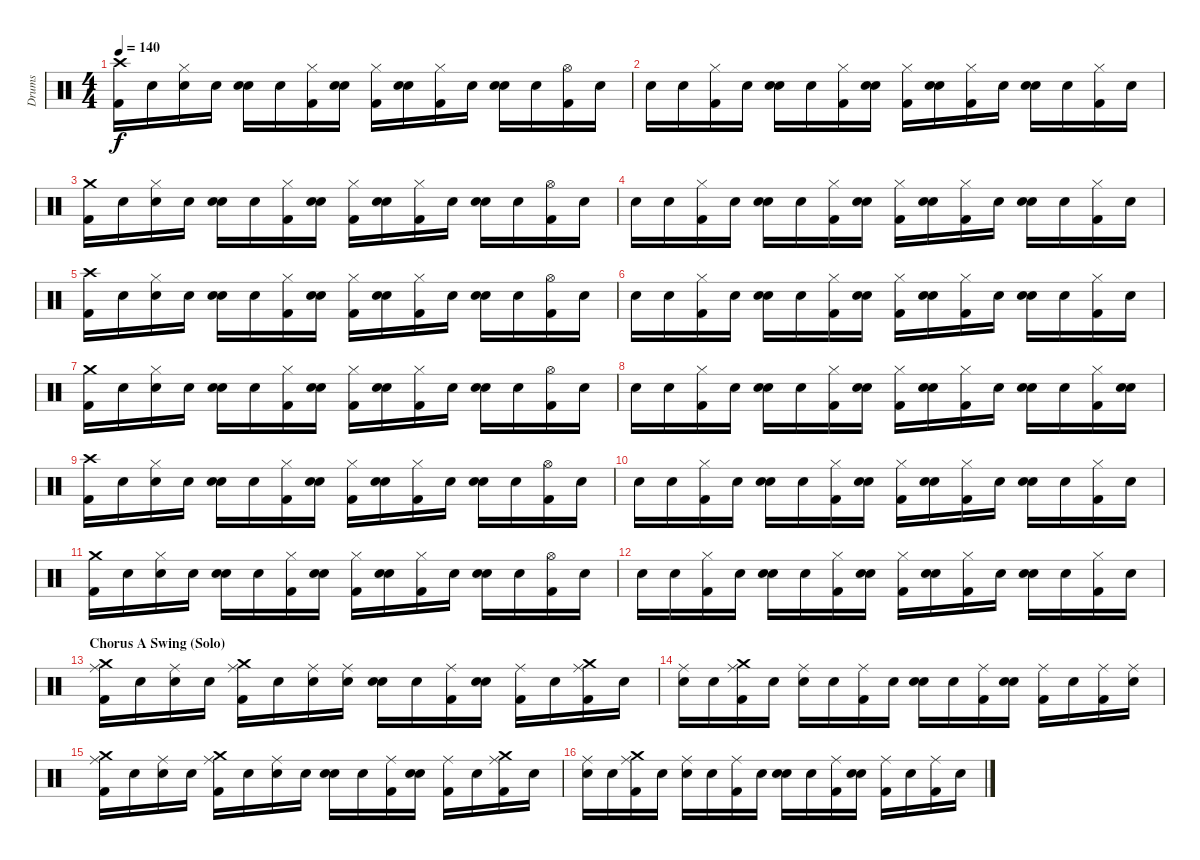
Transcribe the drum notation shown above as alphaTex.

\track ("Drums" "Drums") {instrument percussion}
\staff {score}
\articulation defaults
\ts (4 4)
\tempo 140
\clef neutral
\ks c
("Kick (hit) 2" "Crash high (hit)").16{dy f} "Snare (hit)".16 ("Snare (hit)" "Hi-Hat (closed)").16 "Snare (hit)".16 ("Snare (hit)" "Electric Snare (hit)").16 "Snare (hit)".16 ("Kick (hit) 2" "Hi-Hat (closed)").16 ("Snare (hit)" "Electric Snare (hit)").16 ("Kick (hit) 2" "Hi-Hat (closed)").16 ("Snare (hit)" "Electric Snare (hit)").16 ("Kick (hit) 2" "Hi-Hat (closed)").16 "Snare (hit)".16 ("Snare (hit)" "Electric Snare (hit)").16 "Snare (hit)".16 ("Kick (hit) 2" "Hi-Hat (open)").16 "Snare (hit)".16 |
"Snare (hit)".16 "Snare (hit)".16 ("Kick (hit) 2" "Hi-Hat (closed)").16 "Snare (hit)".16 ("Snare (hit)" "Electric Snare (hit)").16 "Snare (hit)".16 ("Kick (hit) 2" "Hi-Hat (closed)").16 ("Snare (hit)" "Electric Snare (hit)").16 ("Kick (hit) 2" "Hi-Hat (closed)").16 ("Snare (hit)" "Electric Snare (hit)").16 ("Kick (hit) 2" "Hi-Hat (closed)").16 "Snare (hit)".16 ("Snare (hit)" "Electric Snare (hit)").16 "Snare (hit)".16 ("Kick (hit) 2" "Hi-Hat (closed)").16 "Snare (hit)".16 |
("Kick (hit) 2" "Crash medium (hit)").16 "Snare (hit)".16 ("Snare (hit)" "Hi-Hat (closed)").16 "Snare (hit)".16 ("Snare (hit)" "Electric Snare (hit)").16 "Snare (hit)".16 ("Kick (hit) 2" "Hi-Hat (closed)").16 ("Snare (hit)" "Electric Snare (hit)").16 ("Kick (hit) 2" "Hi-Hat (closed)").16 ("Snare (hit)" "Electric Snare (hit)").16 ("Kick (hit) 2" "Hi-Hat (closed)").16 "Snare (hit)".16 ("Snare (hit)" "Electric Snare (hit)").16 "Snare (hit)".16 ("Kick (hit) 2" "Hi-Hat (open)").16 "Snare (hit)".16 |
"Snare (hit)".16 "Snare (hit)".16 ("Kick (hit) 2" "Hi-Hat (closed)").16 "Snare (hit)".16 ("Snare (hit)" "Electric Snare (hit)").16 "Snare (hit)".16 ("Kick (hit) 2" "Hi-Hat (closed)").16 ("Snare (hit)" "Electric Snare (hit)").16 ("Kick (hit) 2" "Hi-Hat (closed)").16 ("Snare (hit)" "Electric Snare (hit)").16 ("Kick (hit) 2" "Hi-Hat (closed)").16 "Snare (hit)".16 ("Snare (hit)" "Electric Snare (hit)").16 "Snare (hit)".16 ("Kick (hit) 2" "Hi-Hat (closed)").16 "Snare (hit)".16 |
("Kick (hit) 2" "Crash high (hit)").16 "Snare (hit)".16 ("Snare (hit)" "Hi-Hat (closed)").16 "Snare (hit)".16 ("Snare (hit)" "Electric Snare (hit)").16 "Snare (hit)".16 ("Kick (hit) 2" "Hi-Hat (closed)").16 ("Snare (hit)" "Electric Snare (hit)").16 ("Kick (hit) 2" "Hi-Hat (closed)").16 ("Snare (hit)" "Electric Snare (hit)").16 ("Kick (hit) 2" "Hi-Hat (closed)").16 "Snare (hit)".16 ("Snare (hit)" "Electric Snare (hit)").16 "Snare (hit)".16 ("Kick (hit) 2" "Hi-Hat (open)").16 "Snare (hit)".16 |
"Snare (hit)".16 "Snare (hit)".16 ("Kick (hit) 2" "Hi-Hat (closed)").16 "Snare (hit)".16 ("Snare (hit)" "Electric Snare (hit)").16 "Snare (hit)".16 ("Kick (hit) 2" "Hi-Hat (closed)").16 ("Snare (hit)" "Electric Snare (hit)").16 ("Kick (hit) 2" "Hi-Hat (closed)").16 ("Snare (hit)" "Electric Snare (hit)").16 ("Kick (hit) 2" "Hi-Hat (closed)").16 "Snare (hit)".16 ("Snare (hit)" "Electric Snare (hit)").16 "Snare (hit)".16 ("Kick (hit) 2" "Hi-Hat (closed)").16 "Snare (hit)".16 |
("Kick (hit) 2" "Crash medium (hit)").16 "Snare (hit)".16 ("Snare (hit)" "Hi-Hat (closed)").16 "Snare (hit)".16 ("Snare (hit)" "Electric Snare (hit)").16 "Snare (hit)".16 ("Kick (hit) 2" "Hi-Hat (closed)").16 ("Snare (hit)" "Electric Snare (hit)").16 ("Kick (hit) 2" "Hi-Hat (closed)").16 ("Snare (hit)" "Electric Snare (hit)").16 ("Kick (hit) 2" "Hi-Hat (closed)").16 "Snare (hit)".16 ("Snare (hit)" "Electric Snare (hit)").16 "Snare (hit)".16 ("Kick (hit) 2" "Hi-Hat (open)").16 "Snare (hit)".16 |
"Snare (hit)".16 "Snare (hit)".16 ("Kick (hit) 2" "Hi-Hat (closed)").16 "Snare (hit)".16 ("Snare (hit)" "Electric Snare (hit)").16 "Snare (hit)".16 ("Kick (hit) 2" "Hi-Hat (closed)").16 ("Snare (hit)" "Electric Snare (hit)").16 ("Kick (hit) 2" "Hi-Hat (closed)").16 ("Snare (hit)" "Electric Snare (hit)").16 ("Kick (hit) 2" "Hi-Hat (closed)").16 "Snare (hit)".16 ("Snare (hit)" "Electric Snare (hit)").16 "Snare (hit)".16 ("Kick (hit) 2" "Hi-Hat (closed)").16 ("Snare (hit)" "Electric Snare (hit)").16 |
("Kick (hit) 2" "Crash high (hit)").16 "Snare (hit)".16 ("Snare (hit)" "Hi-Hat (closed)").16 "Snare (hit)".16 ("Snare (hit)" "Electric Snare (hit)").16 "Snare (hit)".16 ("Kick (hit) 2" "Hi-Hat (closed)").16 ("Snare (hit)" "Electric Snare (hit)").16 ("Kick (hit) 2" "Hi-Hat (closed)").16 ("Snare (hit)" "Electric Snare (hit)").16 ("Kick (hit) 2" "Hi-Hat (closed)").16 "Snare (hit)".16 ("Snare (hit)" "Electric Snare (hit)").16 "Snare (hit)".16 ("Kick (hit) 2" "Hi-Hat (open)").16 "Snare (hit)".16 |
"Snare (hit)".16 "Snare (hit)".16 ("Kick (hit) 2" "Hi-Hat (closed)").16 "Snare (hit)".16 ("Snare (hit)" "Electric Snare (hit)").16 "Snare (hit)".16 ("Kick (hit) 2" "Hi-Hat (closed)").16 ("Snare (hit)" "Electric Snare (hit)").16 ("Kick (hit) 2" "Hi-Hat (closed)").16 ("Snare (hit)" "Electric Snare (hit)").16 ("Kick (hit) 2" "Hi-Hat (closed)").16 "Snare (hit)".16 ("Snare (hit)" "Electric Snare (hit)").16 "Snare (hit)".16 ("Kick (hit) 2" "Hi-Hat (closed)").16 "Snare (hit)".16 |
("Kick (hit) 2" "Crash medium (hit)").16 "Snare (hit)".16 ("Snare (hit)" "Hi-Hat (closed)").16 "Snare (hit)".16 ("Snare (hit)" "Electric Snare (hit)").16 "Snare (hit)".16 ("Kick (hit) 2" "Hi-Hat (closed)").16 ("Snare (hit)" "Electric Snare (hit)").16 ("Kick (hit) 2" "Hi-Hat (closed)").16 ("Snare (hit)" "Electric Snare (hit)").16 ("Kick (hit) 2" "Hi-Hat (closed)").16 "Snare (hit)".16 ("Snare (hit)" "Electric Snare (hit)").16 "Snare (hit)".16 ("Kick (hit) 2" "Hi-Hat (open)").16 "Snare (hit)".16 |
"Snare (hit)".16 "Snare (hit)".16 ("Kick (hit) 2" "Hi-Hat (closed)").16 "Snare (hit)".16 ("Snare (hit)" "Electric Snare (hit)").16 "Snare (hit)".16 ("Kick (hit) 2" "Hi-Hat (closed)").16 ("Snare (hit)" "Electric Snare (hit)").16 ("Kick (hit) 2" "Hi-Hat (closed)").16 ("Snare (hit)" "Electric Snare (hit)").16 ("Kick (hit) 2" "Hi-Hat (closed)").16 "Snare (hit)".16 ("Snare (hit)" "Electric Snare (hit)").16 "Snare (hit)".16 ("Kick (hit) 2" "Hi-Hat (closed)").16 "Snare (hit)".16 |
\section ("" "Chorus A Swing (Solo)")
("Kick (hit) 2" "Ride (middle)" "Crash medium (hit)").16 "Snare (hit)".16 ("Snare (hit)" "Ride (middle)").16 "Snare (hit)".16 ("Kick (hit) 2" "Ride (middle)" "Crash medium (hit)").16 "Snare (hit)".16 ("Snare (hit)" "Ride (middle)").16 ("Snare (hit)" "Ride (middle)").16 ("Snare (hit)" "Electric Snare (hit)").16 "Snare (hit)".16 ("Kick (hit) 2" "Ride (middle)").16 ("Snare (hit)" "Electric Snare (hit)").16 ("Kick (hit) 2" "Ride (middle)").16 "Snare (hit)".16 ("Kick (hit) 2" "Ride (middle)" "Crash medium (hit)").16 "Snare (hit)".16 |
("Snare (hit)" "Ride (middle)").16 "Snare (hit)".16 ("Kick (hit) 2" "Ride (middle)" "Crash medium (hit)").16 "Snare (hit)".16 ("Snare (hit)" "Ride (middle)").16 "Snare (hit)".16 ("Kick (hit) 2" "Ride (middle)").16 "Snare (hit)".16 ("Snare (hit)" "Electric Snare (hit)").16 "Snare (hit)".16 ("Kick (hit) 2" "Ride (middle)").16 ("Snare (hit)" "Electric Snare (hit)").16 ("Kick (hit) 2" "Ride (middle)").16 "Snare (hit)".16 ("Kick (hit) 2" "Ride (middle)").16 ("Snare (hit)" "Ride (middle)").16 |
("Kick (hit) 2" "Ride (middle)" "Crash medium (hit)").16 "Snare (hit)".16 ("Snare (hit)" "Ride (middle)").16 "Snare (hit)".16 ("Kick (hit) 2" "Ride (middle)" "Crash medium (hit)").16 "Snare (hit)".16 ("Snare (hit)" "Ride (middle)").16 "Snare (hit)".16 ("Snare (hit)" "Electric Snare (hit)").16 "Snare (hit)".16 ("Kick (hit) 2" "Ride (middle)").16 ("Snare (hit)" "Electric Snare (hit)").16 ("Kick (hit) 2" "Ride (middle)").16 "Snare (hit)".16 ("Kick (hit) 2" "Ride (middle)" "Crash medium (hit)").16 "Snare (hit)".16 |
("Snare (hit)" "Ride (middle)").16 "Snare (hit)".16 ("Kick (hit) 2" "Ride (middle)" "Crash medium (hit)").16 "Snare (hit)".16 ("Snare (hit)" "Ride (middle)").16 "Snare (hit)".16 ("Kick (hit) 2" "Ride (middle)").16 "Snare (hit)".16 ("Snare (hit)" "Electric Snare (hit)").16 "Snare (hit)".16 ("Kick (hit) 2" "Ride (middle)").16 ("Snare (hit)" "Electric Snare (hit)").16 ("Kick (hit) 2" "Ride (middle)").16 "Snare (hit)".16 ("Kick (hit) 2" "Ride (middle)").16 "Snare (hit)".16
